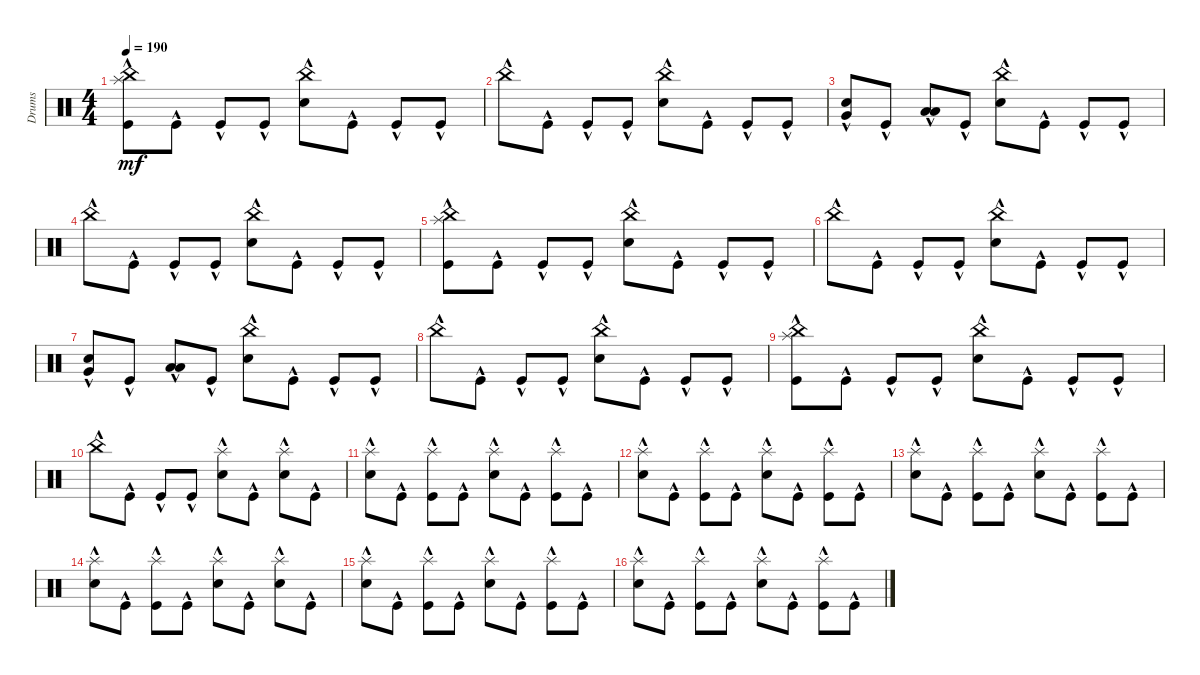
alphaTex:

\track ("Drums" "Drums") {instrument percussion}
\staff {score}
\articulation defaults
\ts (4 4)
\tempo 190
\clef neutral
\ks c
("Kick (hit)"{hac} "Splash (hit)"{hac} "China (hit)"{hac}).8{dy mf} "Kick (hit)"{hac}.8 "Kick (hit)"{hac}.8 "Kick (hit)"{hac}.8 ("Snare (hit) 2"{hac} "China (hit)"{hac}).8 "Kick (hit)"{hac}.8 "Kick (hit)"{hac}.8 "Kick (hit)"{hac}.8 |
"China (hit)"{hac}.8 "Kick (hit)"{hac}.8 "Kick (hit)"{hac}.8 "Kick (hit)"{hac}.8 ("Snare (hit) 2"{hac} "China (hit)"{hac}).8 "Kick (hit)"{hac}.8 "Kick (hit)"{hac}.8 "Kick (hit)"{hac}.8 |
("Very Low Tom (hit)"{hac} "Snare (hit) 2"{hac}).8 "Kick (hit)"{hac}.8 ("Low Floor Tom (hit)"{hac} "Low Tom (hit)"{hac}).8 "Kick (hit)"{hac}.8 ("Snare (hit) 2"{hac} "China (hit)"{hac}).8 "Kick (hit)"{hac}.8 "Kick (hit)"{hac}.8 "Kick (hit)"{hac}.8 |
"China (hit)"{hac}.8 "Kick (hit)"{hac}.8 "Kick (hit)"{hac}.8 "Kick (hit)"{hac}.8 ("Snare (hit) 2"{hac} "China (hit)"{hac}).8 "Kick (hit)"{hac}.8 "Kick (hit)"{hac}.8 "Kick (hit)"{hac}.8 |
("Kick (hit)"{hac} "Splash (hit)"{hac} "China (hit)"{hac}).8 "Kick (hit)"{hac}.8 "Kick (hit)"{hac}.8 "Kick (hit)"{hac}.8 ("Snare (hit) 2"{hac} "China (hit)"{hac}).8 "Kick (hit)"{hac}.8 "Kick (hit)"{hac}.8 "Kick (hit)"{hac}.8 |
"China (hit)"{hac}.8 "Kick (hit)"{hac}.8 "Kick (hit)"{hac}.8 "Kick (hit)"{hac}.8 ("Snare (hit) 2"{hac} "China (hit)"{hac}).8 "Kick (hit)"{hac}.8 "Kick (hit)"{hac}.8 "Kick (hit)"{hac}.8 |
("Very Low Tom (hit)"{hac} "Snare (hit) 2"{hac}).8 "Kick (hit)"{hac}.8 ("Low Floor Tom (hit)"{hac} "Low Tom (hit)"{hac}).8 "Kick (hit)"{hac}.8 ("Snare (hit) 2"{hac} "China (hit)"{hac}).8 "Kick (hit)"{hac}.8 "Kick (hit)"{hac}.8 "Kick (hit)"{hac}.8 |
"China (hit)"{hac}.8 "Kick (hit)"{hac}.8 "Kick (hit)"{hac}.8 "Kick (hit)"{hac}.8 ("Snare (hit) 2"{hac} "China (hit)"{hac}).8 "Kick (hit)"{hac}.8 "Kick (hit)"{hac}.8 "Kick (hit)"{hac}.8 |
("Kick (hit)"{hac} "Splash (hit)"{hac} "China (hit)"{hac}).8 "Kick (hit)"{hac}.8 "Kick (hit)"{hac}.8 "Kick (hit)"{hac}.8 ("Snare (hit) 2"{hac} "China (hit)"{hac}).8 "Kick (hit)"{hac}.8 "Kick (hit)"{hac}.8 "Kick (hit)"{hac}.8 |
"China (hit)"{hac}.8 "Kick (hit)"{hac}.8 "Kick (hit)"{hac}.8 "Kick (hit)"{hac}.8 ("Snare (hit) 2"{hac} "Splash (hit)"{hac}).8 "Kick (hit)"{hac}.8 ("Snare (hit) 2"{hac} "Splash (hit)"{hac}).8 "Kick (hit)"{hac}.8 |
("Snare (hit) 2"{hac} "Splash (hit)"{hac}).8 "Kick (hit)"{hac}.8 ("Kick (hit)"{hac} "Splash (hit)"{hac}).8 "Kick (hit)"{hac}.8 ("Snare (hit) 2"{hac} "Splash (hit)"{hac}).8 "Kick (hit)"{hac}.8 ("Kick (hit)"{hac} "Splash (hit)"{hac}).8 "Kick (hit)"{hac}.8 |
("Snare (hit) 2"{hac} "Splash (hit)"{hac}).8 "Kick (hit)"{hac}.8 ("Kick (hit)"{hac} "Splash (hit)"{hac}).8 "Kick (hit)"{hac}.8 ("Snare (hit) 2"{hac} "Splash (hit)"{hac}).8 "Kick (hit)"{hac}.8 ("Kick (hit)"{hac} "Splash (hit)"{hac}).8 "Kick (hit)"{hac}.8 |
("Snare (hit) 2"{hac} "Splash (hit)"{hac}).8 "Kick (hit)"{hac}.8 ("Kick (hit)"{hac} "Splash (hit)"{hac}).8 "Kick (hit)"{hac}.8 ("Snare (hit) 2"{hac} "Splash (hit)"{hac}).8 "Kick (hit)"{hac}.8 ("Kick (hit)"{hac} "Splash (hit)"{hac}).8 "Kick (hit)"{hac}.8 |
("Snare (hit) 2"{hac} "Splash (hit)"{hac}).8 "Kick (hit)"{hac}.8 ("Kick (hit)"{hac} "Splash (hit)"{hac}).8 "Kick (hit)"{hac}.8 ("Snare (hit) 2"{hac} "Splash (hit)"{hac}).8 "Kick (hit)"{hac}.8 ("Splash (hit)"{hac} "Snare (hit) 2"{hac}).8 "Kick (hit)"{hac}.8 |
("Snare (hit) 2"{hac} "Splash (hit)"{hac}).8 "Kick (hit)"{hac}.8 ("Kick (hit)"{hac} "Splash (hit)"{hac}).8 "Kick (hit)"{hac}.8 ("Snare (hit) 2"{hac} "Splash (hit)"{hac}).8 "Kick (hit)"{hac}.8 ("Kick (hit)"{hac} "Splash (hit)"{hac}).8 "Kick (hit)"{hac}.8 |
("Snare (hit) 2"{hac} "Splash (hit)"{hac}).8 "Kick (hit)"{hac}.8 ("Kick (hit)"{hac} "Splash (hit)"{hac}).8 "Kick (hit)"{hac}.8 ("Snare (hit) 2"{hac} "Splash (hit)"{hac}).8 "Kick (hit)"{hac}.8 ("Kick (hit)"{hac} "Splash (hit)"{hac}).8 "Kick (hit)"{hac}.8
